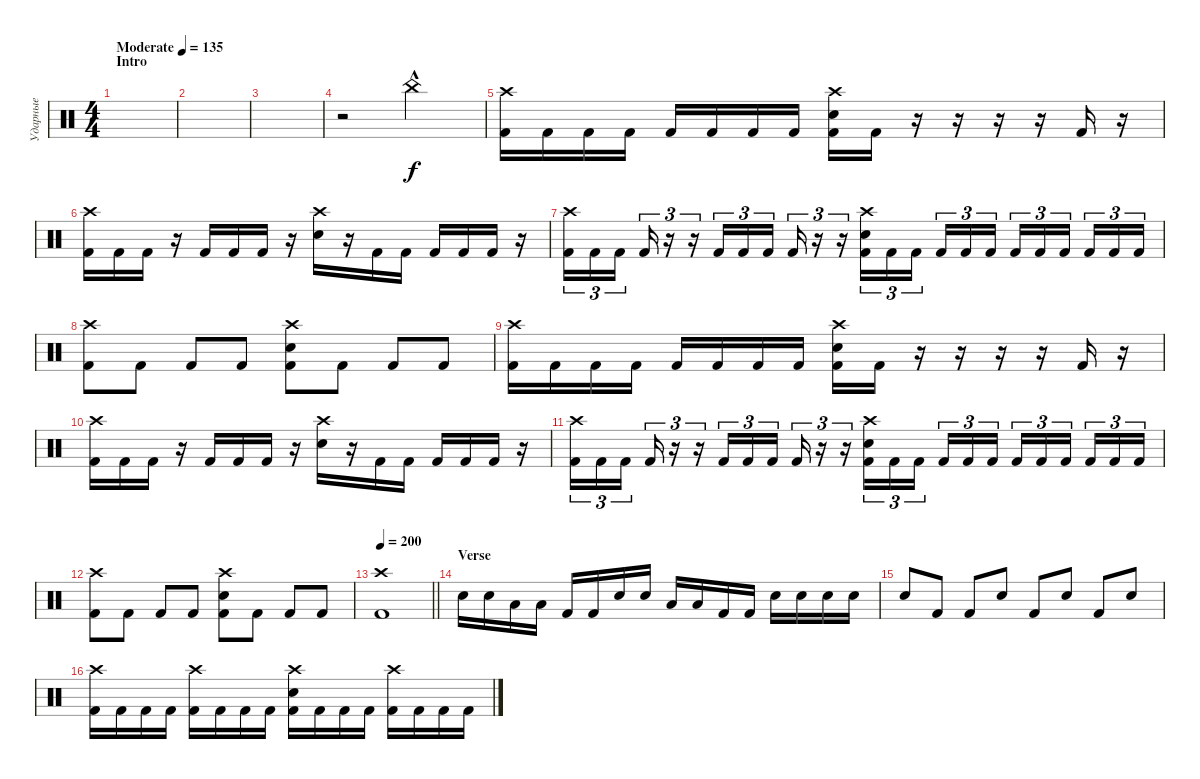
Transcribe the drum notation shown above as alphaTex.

\track ("Ударные" "Ударные") {instrument percussion}
\staff {score}
\articulation defaults
\ts (4 4)
\section ("" "Intro")
\tempo (135 "Moderate")
\clef neutral
\ks c
|
|
|
r.2 "China (hit)"{hac}.2 |
("Crash high (hit)" "Kick (hit) 2").16{dy f} "Kick (hit) 2".16 "Kick (hit) 2".16 "Kick (hit) 2".16 "Kick (hit) 2".16 "Kick (hit) 2".16 "Kick (hit) 2".16 "Kick (hit) 2".16 ("Crash high (hit)" "Electric Snare (hit)" "Kick (hit) 2").16 "Kick (hit) 2".16 r.16 r.16 r.16 r.16 "Kick (hit) 2".16 r.16 |
("Crash high (hit)" "Kick (hit) 2").16 "Kick (hit) 2".16 "Kick (hit) 2".16 r.16 "Kick (hit) 2".16 "Kick (hit) 2".16 "Kick (hit) 2".16 r.16 ("Crash high (hit)" "Electric Snare (hit)").16 r.16 "Kick (hit) 2".16 "Kick (hit) 2".16 "Kick (hit) 2".16 "Kick (hit) 2".16 "Kick (hit) 2".16 r.16 |
("Crash high (hit)" "Kick (hit) 2").16{tu (3 2)} "Kick (hit) 2".16{tu (3 2)} "Kick (hit) 2".16{tu (3 2) beam splitsecondary} "Kick (hit) 2".16{tu (3 2)} r.16{tu (3 2)} r.16{tu (3 2)} "Kick (hit) 2".16{tu (3 2)} "Kick (hit) 2".16{tu (3 2)} "Kick (hit) 2".16{tu (3 2) beam splitsecondary} "Kick (hit) 2".16{tu (3 2)} r.16{tu (3 2)} r.16{tu (3 2)} ("Crash high (hit)" "Electric Snare (hit)" "Kick (hit) 2").16{tu (3 2)} "Kick (hit) 2".16{tu (3 2)} "Kick (hit) 2".16{tu (3 2) beam splitsecondary} "Kick (hit) 2".16{tu (3 2)} "Kick (hit) 2".16{tu (3 2)} "Kick (hit) 2".16{tu (3 2)} "Kick (hit) 2".16{tu (3 2)} "Kick (hit) 2".16{tu (3 2)} "Kick (hit) 2".16{tu (3 2) beam splitsecondary} "Kick (hit) 2".16{tu (3 2)} "Kick (hit) 2".16{tu (3 2)} "Kick (hit) 2".16{tu (3 2)} |
("Crash high (hit)" "Kick (hit) 2").8 "Kick (hit) 2".8 "Kick (hit) 2".8 "Kick (hit) 2".8 ("Crash high (hit)" "Electric Snare (hit)" "Kick (hit) 2").8 "Kick (hit) 2".8 "Kick (hit) 2".8 "Kick (hit) 2".8 |
("Crash high (hit)" "Kick (hit) 2").16 "Kick (hit) 2".16 "Kick (hit) 2".16 "Kick (hit) 2".16 "Kick (hit) 2".16 "Kick (hit) 2".16 "Kick (hit) 2".16 "Kick (hit) 2".16 ("Crash high (hit)" "Electric Snare (hit)" "Kick (hit) 2").16 "Kick (hit) 2".16 r.16 r.16 r.16 r.16 "Kick (hit) 2".16 r.16 |
("Crash high (hit)" "Kick (hit) 2").16 "Kick (hit) 2".16 "Kick (hit) 2".16 r.16 "Kick (hit) 2".16 "Kick (hit) 2".16 "Kick (hit) 2".16 r.16 ("Crash high (hit)" "Electric Snare (hit)").16 r.16 "Kick (hit) 2".16 "Kick (hit) 2".16 "Kick (hit) 2".16 "Kick (hit) 2".16 "Kick (hit) 2".16 r.16 |
("Crash high (hit)" "Kick (hit) 2").16{tu (3 2)} "Kick (hit) 2".16{tu (3 2)} "Kick (hit) 2".16{tu (3 2) beam splitsecondary} "Kick (hit) 2".16{tu (3 2)} r.16{tu (3 2)} r.16{tu (3 2)} "Kick (hit) 2".16{tu (3 2)} "Kick (hit) 2".16{tu (3 2)} "Kick (hit) 2".16{tu (3 2) beam splitsecondary} "Kick (hit) 2".16{tu (3 2)} r.16{tu (3 2)} r.16{tu (3 2)} ("Crash high (hit)" "Electric Snare (hit)" "Kick (hit) 2").16{tu (3 2)} "Kick (hit) 2".16{tu (3 2)} "Kick (hit) 2".16{tu (3 2) beam splitsecondary} "Kick (hit) 2".16{tu (3 2)} "Kick (hit) 2".16{tu (3 2)} "Kick (hit) 2".16{tu (3 2)} "Kick (hit) 2".16{tu (3 2)} "Kick (hit) 2".16{tu (3 2)} "Kick (hit) 2".16{tu (3 2) beam splitsecondary} "Kick (hit) 2".16{tu (3 2)} "Kick (hit) 2".16{tu (3 2)} "Kick (hit) 2".16{tu (3 2)} |
("Crash high (hit)" "Kick (hit) 2").8 "Kick (hit) 2".8 "Kick (hit) 2".8 "Kick (hit) 2".8 ("Crash high (hit)" "Electric Snare (hit)" "Kick (hit) 2").8 "Kick (hit) 2".8 "Kick (hit) 2".8 "Kick (hit) 2".8 |
\tempo 200
\barLineRight lightlight
("Crash high (hit)" "Kick (hit) 2").1 |
\section ("" "Verse")
"Electric Snare (hit)".16 "Electric Snare (hit)".16 "Low Tom (hit)".16 "Low Tom (hit)".16 "Kick (hit) 2".16 "Kick (hit) 2".16 "Electric Snare (hit)".16 "Electric Snare (hit)".16 "Low Tom (hit)".16 "Low Tom (hit)".16 "Kick (hit) 2".16 "Kick (hit) 2".16 "Electric Snare (hit)".16 "Electric Snare (hit)".16 "Electric Snare (hit)".16 "Electric Snare (hit)".16 |
"Electric Snare (hit)".8 "Kick (hit) 2".8 "Kick (hit) 2".8 "Electric Snare (hit)".8 "Kick (hit) 2".8 "Electric Snare (hit)".8 "Kick (hit) 2".8 "Electric Snare (hit)".8 |
("Crash high (hit)" "Kick (hit) 2").16 "Kick (hit) 2".16 "Kick (hit) 2".16 "Kick (hit) 2".16 ("Crash high (hit)" "Kick (hit) 2").16 "Kick (hit) 2".16 "Kick (hit) 2".16 "Kick (hit) 2".16 ("Crash high (hit)" "Electric Snare (hit)" "Kick (hit) 2").16 "Kick (hit) 2".16 "Kick (hit) 2".16 "Kick (hit) 2".16 ("Crash high (hit)" "Kick (hit) 2").16 "Kick (hit) 2".16 "Kick (hit) 2".16 "Kick (hit) 2".16
